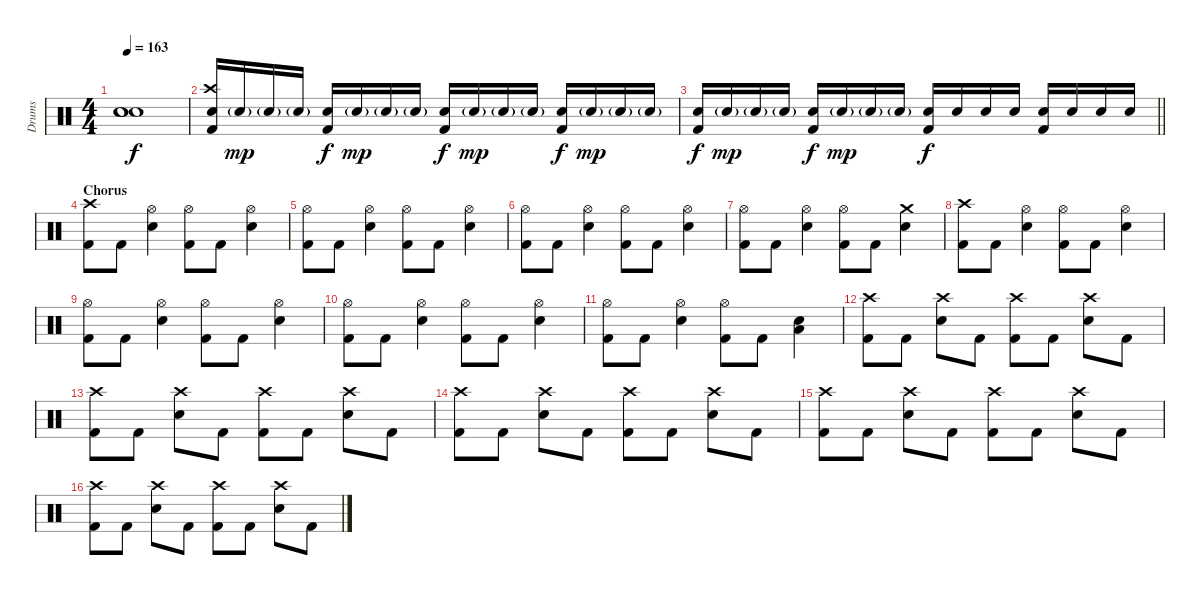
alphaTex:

\track ("Drums" "Drums") {instrument percussion}
\staff {score}
\articulation defaults
\ts (4 4)
\tempo 163
\clef neutral
\ks c
("Snare (hit)"{t} "Snare (hit)"{t} "Snare (hit)"{t}).1{dy f} |
("Crash high (hit)" "Snare (hit) 2" "Kick (hit) 2").16 "Snare (hit) 2"{g}.16{dy mp} "Snare (hit) 2"{g}.16 "Snare (hit) 2"{g}.16 ("Snare (hit) 2" "Kick (hit) 2").16{dy f} "Snare (hit) 2"{g}.16{dy mp} "Snare (hit) 2"{g}.16 "Snare (hit) 2"{g}.16 ("Snare (hit) 2" "Kick (hit) 2").16{dy f} "Snare (hit) 2"{g}.16{dy mp} "Snare (hit) 2"{g}.16 "Snare (hit) 2"{g}.16 ("Snare (hit) 2" "Kick (hit) 2").16{dy f} "Snare (hit) 2"{g}.16{dy mp} "Snare (hit) 2"{g}.16 "Snare (hit) 2"{g}.16 |
\barLineRight lightlight
("Snare (hit) 2" "Kick (hit) 2").16{dy f} "Snare (hit) 2"{g}.16{dy mp} "Snare (hit) 2"{g}.16 "Snare (hit) 2"{g}.16 ("Snare (hit) 2" "Kick (hit) 2").16{dy f} "Snare (hit) 2"{g}.16{dy mp} "Snare (hit) 2"{g}.16 "Snare (hit) 2"{g}.16 ("Snare (hit) 2" "Kick (hit) 2").16{dy f} "Snare (hit) 2".16 "Snare (hit) 2".16 "Snare (hit) 2".16 ("Snare (hit) 2" "Kick (hit) 2").16 "Snare (hit) 2".16 "Snare (hit) 2".16 "Snare (hit) 2".16 |
\section ("" "Chorus")
("Crash high (hit)" "Kick (hit) 2").8 "Kick (hit) 2".8 ("Hi-Hat (open)" "Snare (hit) 2").4 ("Hi-Hat (open)" "Kick (hit) 2").8 "Kick (hit) 2".8 ("Hi-Hat (open)" "Snare (hit) 2").4 |
("Hi-Hat (open)" "Kick (hit) 2").8 "Kick (hit) 2".8 ("Hi-Hat (open)" "Snare (hit) 2").4 ("Hi-Hat (open)" "Kick (hit) 2").8 "Kick (hit) 2".8 ("Hi-Hat (open)" "Snare (hit) 2").4 |
("Hi-Hat (open)" "Kick (hit) 2").8 "Kick (hit) 2".8 ("Hi-Hat (open)" "Snare (hit) 2").4 ("Hi-Hat (open)" "Kick (hit) 2").8 "Kick (hit) 2".8 ("Hi-Hat (open)" "Snare (hit) 2").4 |
("Hi-Hat (open)" "Kick (hit) 2").8 "Kick (hit) 2".8 ("Hi-Hat (open)" "Snare (hit) 2").4 ("Hi-Hat (open)" "Kick (hit) 2").8 "Kick (hit) 2".8 ("Crash medium (hit)" "Snare (hit) 2").4 |
("Crash high (hit)" "Kick (hit) 2").8 "Kick (hit) 2".8 ("Hi-Hat (open)" "Snare (hit) 2").4 ("Hi-Hat (open)" "Kick (hit) 2").8 "Kick (hit) 2".8 ("Hi-Hat (open)" "Snare (hit) 2").4 |
("Hi-Hat (open)" "Kick (hit) 2").8 "Kick (hit) 2".8 ("Hi-Hat (open)" "Snare (hit) 2").4 ("Hi-Hat (open)" "Kick (hit) 2").8 "Kick (hit) 2".8 ("Hi-Hat (open)" "Snare (hit) 2").4 |
("Hi-Hat (open)" "Kick (hit) 2").8 "Kick (hit) 2".8 ("Hi-Hat (open)" "Snare (hit) 2").4 ("Hi-Hat (open)" "Kick (hit) 2").8 "Kick (hit) 2".8 ("Hi-Hat (open)" "Snare (hit) 2").4 |
("Hi-Hat (open)" "Kick (hit) 2").8 "Kick (hit) 2".8 ("Hi-Hat (open)" "Snare (hit) 2").4 ("Hi-Hat (open)" "Kick (hit) 2").8 "Kick (hit) 2".8 ("Low Floor Tom (hit)" "Snare (hit) 2").4 |
("Crash high (hit)" "Kick (hit) 2").8 "Kick (hit) 2".8 ("Crash high (hit)" "Snare (hit) 2").8 "Kick (hit) 2".8 ("Crash high (hit)" "Kick (hit) 2").8 "Kick (hit) 2".8 ("Crash high (hit)" "Snare (hit) 2").8 "Kick (hit) 2".8 |
("Crash high (hit)" "Kick (hit) 2").8 "Kick (hit) 2".8 ("Crash high (hit)" "Snare (hit) 2").8 "Kick (hit) 2".8 ("Crash high (hit)" "Kick (hit) 2").8 "Kick (hit) 2".8 ("Crash high (hit)" "Snare (hit) 2").8 "Kick (hit) 2".8 |
("Crash high (hit)" "Kick (hit) 2").8 "Kick (hit) 2".8 ("Crash high (hit)" "Snare (hit) 2").8 "Kick (hit) 2".8 ("Crash high (hit)" "Kick (hit) 2").8 "Kick (hit) 2".8 ("Crash high (hit)" "Snare (hit) 2").8 "Kick (hit) 2".8 |
("Crash high (hit)" "Kick (hit) 2").8 "Kick (hit) 2".8 ("Crash high (hit)" "Snare (hit) 2").8 "Kick (hit) 2".8 ("Crash high (hit)" "Kick (hit) 2").8 "Kick (hit) 2".8 ("Crash high (hit)" "Snare (hit) 2").8 "Kick (hit) 2".8 |
("Crash high (hit)" "Kick (hit) 2").8 "Kick (hit) 2".8 ("Crash high (hit)" "Snare (hit) 2").8 "Kick (hit) 2".8 ("Crash high (hit)" "Kick (hit) 2").8 "Kick (hit) 2".8 ("Crash high (hit)" "Snare (hit) 2").8 "Kick (hit) 2".8
